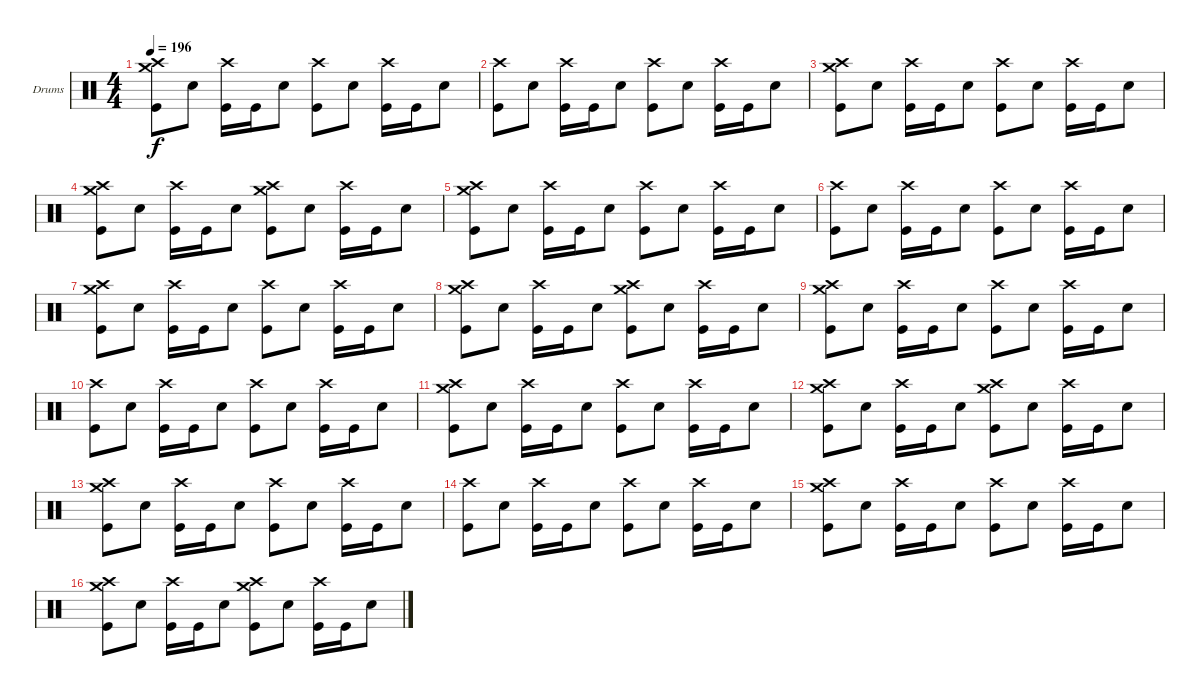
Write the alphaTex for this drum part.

\defaultSystemsLayout 4
\bracketExtendMode groupsimilarinstruments
\firstSystemTrackNameOrientation horizontal
\otherSystemsTrackNameOrientation horizontal
\track ("Lars Ulrich (Drum)" "Drums") {instrument percussion}
\staff {score}
\articulation defaults
\ts (4 4)
\tempo 196
\clef neutral
\scale
0.333333
\ks c
("Crash high (hit)" "Crash medium (hit)" "Kick (hit)").8{dy f} "Snare (hit) 2".8 ("Crash high (hit)" "Kick (hit)").16 "Kick (hit)".16 "Snare (hit) 2".8 ("Crash high (hit)" "Kick (hit)").8 "Snare (hit) 2".8 ("Crash high (hit)" "Kick (hit)").16 "Kick (hit)".16 "Snare (hit) 2".8 |
\scale
0.333333 ("Crash high (hit)" "Kick (hit)").8 "Snare (hit) 2".8 ("Crash high (hit)" "Kick (hit)").16 "Kick (hit)".16 "Snare (hit) 2".8 ("Crash high (hit)" "Kick (hit)").8 "Snare (hit) 2".8 ("Crash high (hit)" "Kick (hit)").16 "Kick (hit)".16 "Snare (hit) 2".8 |
\scale
0.333333 ("Crash high (hit)" "Crash medium (hit)" "Kick (hit)").8 "Snare (hit) 2".8 ("Crash high (hit)" "Kick (hit)").16 "Kick (hit)".16 "Snare (hit) 2".8 ("Crash high (hit)" "Kick (hit)").8 "Snare (hit) 2".8 ("Crash high (hit)" "Kick (hit)").16 "Kick (hit)".16 "Snare (hit) 2".8 |
\scale
0.333333 ("Crash high (hit)" "Crash medium (hit)" "Kick (hit)").8 "Snare (hit) 2".8 ("Crash high (hit)" "Kick (hit)").16 "Kick (hit)".16 "Snare (hit) 2".8 ("Crash high (hit)" "Crash medium (hit)" "Kick (hit)").8 "Snare (hit) 2".8 ("Crash high (hit)" "Kick (hit)").16 "Kick (hit)".16 "Snare (hit) 2".8 |
\scale
0.333333 ("Crash high (hit)" "Crash medium (hit)" "Kick (hit)").8 "Snare (hit) 2".8 ("Crash high (hit)" "Kick (hit)").16 "Kick (hit)".16 "Snare (hit) 2".8 ("Crash high (hit)" "Kick (hit)").8 "Snare (hit) 2".8 ("Crash high (hit)" "Kick (hit)").16 "Kick (hit)".16 "Snare (hit) 2".8 |
\scale
0.333333 ("Crash high (hit)" "Kick (hit)").8 "Snare (hit) 2".8 ("Crash high (hit)" "Kick (hit)").16 "Kick (hit)".16 "Snare (hit) 2".8 ("Crash high (hit)" "Kick (hit)").8 "Snare (hit) 2".8 ("Crash high (hit)" "Kick (hit)").16 "Kick (hit)".16 "Snare (hit) 2".8 |
\scale
0.333333 ("Crash high (hit)" "Crash medium (hit)" "Kick (hit)").8 "Snare (hit) 2".8 ("Crash high (hit)" "Kick (hit)").16 "Kick (hit)".16 "Snare (hit) 2".8 ("Crash high (hit)" "Kick (hit)").8 "Snare (hit) 2".8 ("Crash high (hit)" "Kick (hit)").16 "Kick (hit)".16 "Snare (hit) 2".8 |
\scale
0.333333 ("Crash high (hit)" "Crash medium (hit)" "Kick (hit)").8 "Snare (hit) 2".8 ("Crash high (hit)" "Kick (hit)").16 "Kick (hit)".16 "Snare (hit) 2".8 ("Crash high (hit)" "Crash medium (hit)" "Kick (hit)").8 "Snare (hit) 2".8 ("Crash high (hit)" "Kick (hit)").16 "Kick (hit)".16 "Snare (hit) 2".8 |
\scale
0.333333 ("Crash high (hit)" "Crash medium (hit)" "Kick (hit)").8 "Snare (hit) 2".8 ("Crash high (hit)" "Kick (hit)").16 "Kick (hit)".16 "Snare (hit) 2".8 ("Crash high (hit)" "Kick (hit)").8 "Snare (hit) 2".8 ("Crash high (hit)" "Kick (hit)").16 "Kick (hit)".16 "Snare (hit) 2".8 |
\scale
0.333333 ("Crash high (hit)" "Kick (hit)").8 "Snare (hit) 2".8 ("Crash high (hit)" "Kick (hit)").16 "Kick (hit)".16 "Snare (hit) 2".8 ("Crash high (hit)" "Kick (hit)").8 "Snare (hit) 2".8 ("Crash high (hit)" "Kick (hit)").16 "Kick (hit)".16 "Snare (hit) 2".8 |
\scale
0.333333 ("Crash high (hit)" "Crash medium (hit)" "Kick (hit)").8 "Snare (hit) 2".8 ("Crash high (hit)" "Kick (hit)").16 "Kick (hit)".16 "Snare (hit) 2".8 ("Crash high (hit)" "Kick (hit)").8 "Snare (hit) 2".8 ("Crash high (hit)" "Kick (hit)").16 "Kick (hit)".16 "Snare (hit) 2".8 |
\scale
0.333333 ("Crash high (hit)" "Crash medium (hit)" "Kick (hit)").8 "Snare (hit) 2".8 ("Crash high (hit)" "Kick (hit)").16 "Kick (hit)".16 "Snare (hit) 2".8 ("Crash high (hit)" "Crash medium (hit)" "Kick (hit)").8 "Snare (hit) 2".8 ("Crash high (hit)" "Kick (hit)").16 "Kick (hit)".16 "Snare (hit) 2".8 |
\scale
0.333333 ("Crash high (hit)" "Crash medium (hit)" "Kick (hit)").8 "Snare (hit) 2".8 ("Crash high (hit)" "Kick (hit)").16 "Kick (hit)".16 "Snare (hit) 2".8 ("Crash high (hit)" "Kick (hit)").8 "Snare (hit) 2".8 ("Crash high (hit)" "Kick (hit)").16 "Kick (hit)".16 "Snare (hit) 2".8 |
\scale
0.333333 ("Crash high (hit)" "Kick (hit)").8 "Snare (hit) 2".8 ("Crash high (hit)" "Kick (hit)").16 "Kick (hit)".16 "Snare (hit) 2".8 ("Crash high (hit)" "Kick (hit)").8 "Snare (hit) 2".8 ("Crash high (hit)" "Kick (hit)").16 "Kick (hit)".16 "Snare (hit) 2".8 |
\scale
0.333333 ("Crash high (hit)" "Crash medium (hit)" "Kick (hit)").8 "Snare (hit) 2".8 ("Crash high (hit)" "Kick (hit)").16 "Kick (hit)".16 "Snare (hit) 2".8 ("Crash high (hit)" "Kick (hit)").8 "Snare (hit) 2".8 ("Crash high (hit)" "Kick (hit)").16 "Kick (hit)".16 "Snare (hit) 2".8 |
\scale
0.333333 ("Crash high (hit)" "Crash medium (hit)" "Kick (hit)").8 "Snare (hit) 2".8 ("Crash high (hit)" "Kick (hit)").16 "Kick (hit)".16 "Snare (hit) 2".8 ("Crash high (hit)" "Crash medium (hit)" "Kick (hit)").8 "Snare (hit) 2".8 ("Crash high (hit)" "Kick (hit)").16 "Kick (hit)".16 "Snare (hit) 2".8
